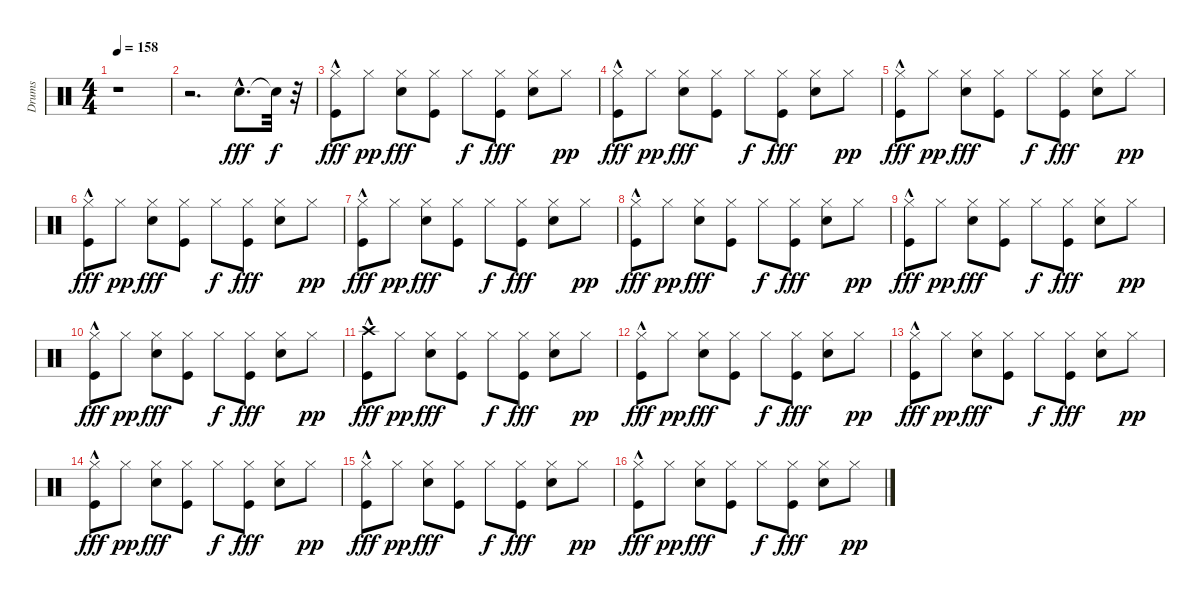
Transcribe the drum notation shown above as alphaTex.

\track ("Drums" "Drums") {instrument percussion}
\staff {score}
\articulation defaults
\ts (4 4)
\tempo 158
\clef neutral
\ks c
r.1{dy fff} |
r.2{d} "Electric Snare (hit)"{hac}.8{d} "Snare (hit)"{t}.32{dy f} r.32 |
("Hi-Hat (closed)" "Kick (hit)"{hac}).8{dy fff} "Hi-Hat (closed)".8{dy pp} ("Electric Snare (hit)" "Hi-Hat (closed)").8{dy fff} ("Hi-Hat (closed)" "Kick (hit)").8 "Hi-Hat (closed)".8{dy f} ("Hi-Hat (closed)" "Kick (hit)").8{dy fff} ("Electric Snare (hit)" "Hi-Hat (closed)").8 "Hi-Hat (closed)".8{dy pp} |
("Hi-Hat (closed)" "Kick (hit)"{hac}).8{dy fff} "Hi-Hat (closed)".8{dy pp} ("Electric Snare (hit)" "Hi-Hat (closed)").8{dy fff} ("Hi-Hat (closed)" "Kick (hit)").8 "Hi-Hat (closed)".8{dy f} ("Hi-Hat (closed)" "Kick (hit)").8{dy fff} ("Electric Snare (hit)" "Hi-Hat (closed)").8 "Hi-Hat (closed)".8{dy pp} |
("Hi-Hat (closed)" "Kick (hit)"{hac}).8{dy fff} "Hi-Hat (closed)".8{dy pp} ("Electric Snare (hit)" "Hi-Hat (closed)").8{dy fff} ("Hi-Hat (closed)" "Kick (hit)").8 "Hi-Hat (closed)".8{dy f} ("Hi-Hat (closed)" "Kick (hit)").8{dy fff} ("Electric Snare (hit)" "Hi-Hat (closed)").8 "Hi-Hat (closed)".8{dy pp} |
("Hi-Hat (closed)" "Kick (hit)"{hac}).8{dy fff} "Hi-Hat (closed)".8{dy pp} ("Electric Snare (hit)" "Hi-Hat (closed)").8{dy fff} ("Hi-Hat (closed)" "Kick (hit)").8 "Hi-Hat (closed)".8{dy f} ("Hi-Hat (closed)" "Kick (hit)").8{dy fff} ("Electric Snare (hit)" "Hi-Hat (closed)").8 "Hi-Hat (closed)".8{dy pp} |
("Hi-Hat (closed)" "Kick (hit)"{hac}).8{dy fff} "Hi-Hat (closed)".8{dy pp} ("Electric Snare (hit)" "Hi-Hat (closed)").8{dy fff} ("Hi-Hat (closed)" "Kick (hit)").8 "Hi-Hat (closed)".8{dy f} ("Hi-Hat (closed)" "Kick (hit)").8{dy fff} ("Electric Snare (hit)" "Hi-Hat (closed)").8 "Hi-Hat (closed)".8{dy pp} |
("Hi-Hat (closed)" "Kick (hit)"{hac}).8{dy fff} "Hi-Hat (closed)".8{dy pp} ("Electric Snare (hit)" "Hi-Hat (closed)").8{dy fff} ("Hi-Hat (closed)" "Kick (hit)").8 "Hi-Hat (closed)".8{dy f} ("Hi-Hat (closed)" "Kick (hit)").8{dy fff} ("Electric Snare (hit)" "Hi-Hat (closed)").8 "Hi-Hat (closed)".8{dy pp} |
("Hi-Hat (closed)" "Kick (hit)"{hac}).8{dy fff} "Hi-Hat (closed)".8{dy pp} ("Electric Snare (hit)" "Hi-Hat (closed)").8{dy fff} ("Hi-Hat (closed)" "Kick (hit)").8 "Hi-Hat (closed)".8{dy f} ("Hi-Hat (closed)" "Kick (hit)").8{dy fff} ("Electric Snare (hit)" "Hi-Hat (closed)").8 "Hi-Hat (closed)".8{dy pp} |
("Hi-Hat (closed)" "Kick (hit)"{hac}).8{dy fff} "Hi-Hat (closed)".8{dy pp} ("Electric Snare (hit)" "Hi-Hat (closed)").8{dy fff} ("Hi-Hat (closed)" "Kick (hit)").8 "Hi-Hat (closed)".8{dy f} ("Hi-Hat (closed)" "Kick (hit)").8{dy fff} ("Electric Snare (hit)" "Hi-Hat (closed)").8 "Hi-Hat (closed)".8{dy pp} |
("Crash high (hit)" "Kick (hit)"{hac}).8{dy fff} "Hi-Hat (closed)".8{dy pp} ("Electric Snare (hit)" "Hi-Hat (closed)").8{dy fff} ("Hi-Hat (closed)" "Kick (hit)").8 "Hi-Hat (closed)".8{dy f} ("Hi-Hat (closed)" "Kick (hit)").8{dy fff} ("Electric Snare (hit)" "Hi-Hat (closed)").8 "Hi-Hat (closed)".8{dy pp} |
("Hi-Hat (closed)" "Kick (hit)"{hac}).8{dy fff} "Hi-Hat (closed)".8{dy pp} ("Electric Snare (hit)" "Hi-Hat (closed)").8{dy fff} ("Hi-Hat (closed)" "Kick (hit)").8 "Hi-Hat (closed)".8{dy f} ("Hi-Hat (closed)" "Kick (hit)").8{dy fff} ("Electric Snare (hit)" "Hi-Hat (closed)").8 "Hi-Hat (closed)".8{dy pp} |
("Hi-Hat (closed)" "Kick (hit)"{hac}).8{dy fff} "Hi-Hat (closed)".8{dy pp} ("Electric Snare (hit)" "Hi-Hat (closed)").8{dy fff} ("Hi-Hat (closed)" "Kick (hit)").8 "Hi-Hat (closed)".8{dy f} ("Hi-Hat (closed)" "Kick (hit)").8{dy fff} ("Electric Snare (hit)" "Hi-Hat (closed)").8 "Hi-Hat (closed)".8{dy pp} |
("Hi-Hat (closed)" "Kick (hit)"{hac}).8{dy fff} "Hi-Hat (closed)".8{dy pp} ("Electric Snare (hit)" "Hi-Hat (closed)").8{dy fff} ("Hi-Hat (closed)" "Kick (hit)").8 "Hi-Hat (closed)".8{dy f} ("Hi-Hat (closed)" "Kick (hit)").8{dy fff} ("Electric Snare (hit)" "Hi-Hat (closed)").8 "Hi-Hat (closed)".8{dy pp} |
("Hi-Hat (closed)" "Kick (hit)"{hac}).8{dy fff} "Hi-Hat (closed)".8{dy pp} ("Electric Snare (hit)" "Hi-Hat (closed)").8{dy fff} ("Hi-Hat (closed)" "Kick (hit)").8 "Hi-Hat (closed)".8{dy f} ("Hi-Hat (closed)" "Kick (hit)").8{dy fff} ("Electric Snare (hit)" "Hi-Hat (closed)").8 "Hi-Hat (closed)".8{dy pp} |
("Hi-Hat (closed)" "Kick (hit)"{hac}).8{dy fff} "Hi-Hat (closed)".8{dy pp} ("Electric Snare (hit)" "Hi-Hat (closed)").8{dy fff} ("Hi-Hat (closed)" "Kick (hit)").8 "Hi-Hat (closed)".8{dy f} ("Hi-Hat (closed)" "Kick (hit)").8{dy fff} ("Electric Snare (hit)" "Hi-Hat (closed)").8 "Hi-Hat (closed)".8{dy pp}
